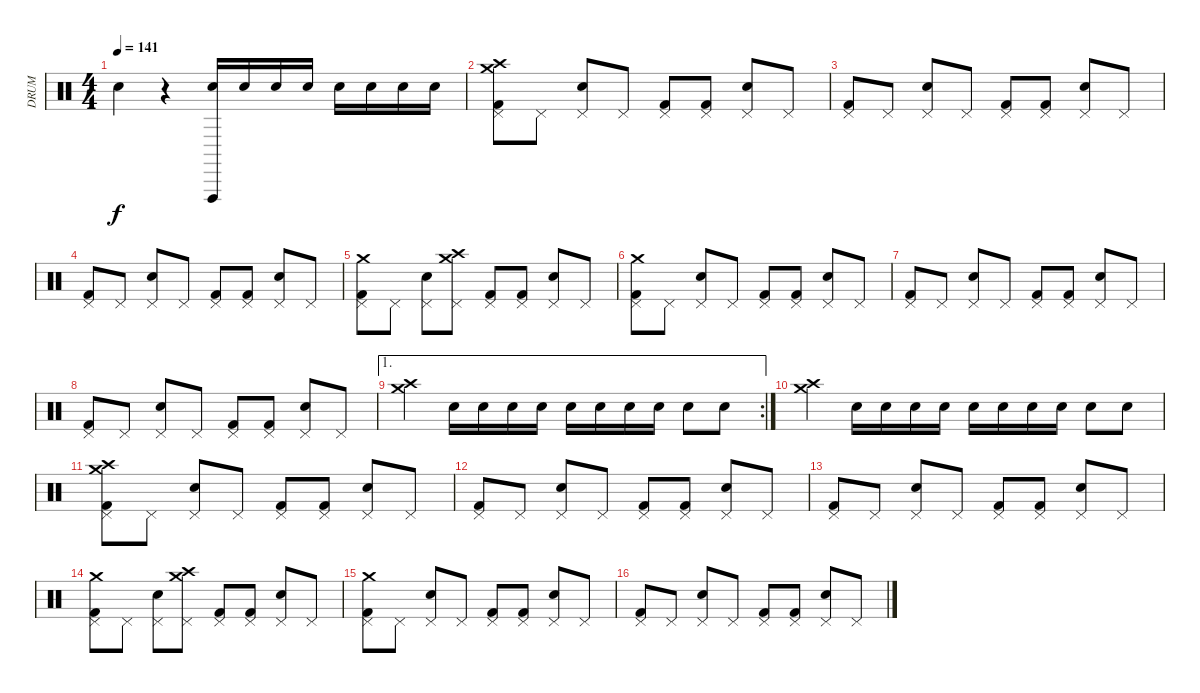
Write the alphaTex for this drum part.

\track ("DRUM" "DRUM") {instrument percussion}
\staff {score}
\articulation defaults
\ts (4 4)
\tempo 141
\clef neutral
\ks c "Snare (hit) 2".4{dy f}
r.4 ("Vibraslap (hit)" "Electric Snare (hit)").16 "Electric Snare (hit)".16 "Electric Snare (hit)".16 "Electric Snare (hit)".16 "Electric Snare (hit)".16 "Electric Snare (hit)".16 "Snare (hit) 2".16 "Electric Snare (hit)".16 |
("Crash high (hit)" "Crash medium (hit)" "Pedal Hi-Hat (hit)" "Kick (hit) 2").8 "Pedal Hi-Hat (hit)".8 ("Snare (hit) 2" "Pedal Hi-Hat (hit)").8 "Pedal Hi-Hat (hit)".8 ("Pedal Hi-Hat (hit)" "Kick (hit) 2").8 ("Pedal Hi-Hat (hit)" "Kick (hit) 2").8 ("Snare (hit) 2" "Pedal Hi-Hat (hit)").8 "Pedal Hi-Hat (hit)".8 |
("Pedal Hi-Hat (hit)" "Kick (hit) 2").8 "Pedal Hi-Hat (hit)".8 ("Snare (hit) 2" "Pedal Hi-Hat (hit)").8 "Pedal Hi-Hat (hit)".8 ("Pedal Hi-Hat (hit)" "Kick (hit) 2").8 ("Pedal Hi-Hat (hit)" "Kick (hit) 2").8 ("Snare (hit) 2" "Pedal Hi-Hat (hit)").8 "Pedal Hi-Hat (hit)".8 |
("Pedal Hi-Hat (hit)" "Kick (hit) 2").8 "Pedal Hi-Hat (hit)".8 ("Snare (hit) 2" "Pedal Hi-Hat (hit)").8 "Pedal Hi-Hat (hit)".8 ("Pedal Hi-Hat (hit)" "Kick (hit) 2").8 ("Pedal Hi-Hat (hit)" "Kick (hit) 2").8 ("Snare (hit) 2" "Pedal Hi-Hat (hit)").8 "Pedal Hi-Hat (hit)".8 |
("Crash medium (hit)" "Pedal Hi-Hat (hit)" "Kick (hit) 2").8 "Pedal Hi-Hat (hit)".8 ("Snare (hit) 2" "Pedal Hi-Hat (hit)").8 ("Crash medium (hit)" "Crash high (hit)" "Pedal Hi-Hat (hit)").8 ("Pedal Hi-Hat (hit)" "Kick (hit) 2").8 ("Pedal Hi-Hat (hit)" "Kick (hit) 2").8 ("Snare (hit) 2" "Pedal Hi-Hat (hit)").8 "Pedal Hi-Hat (hit)".8 |
("Crash medium (hit)" "Pedal Hi-Hat (hit)" "Kick (hit) 2").8 "Pedal Hi-Hat (hit)".8 ("Snare (hit) 2" "Pedal Hi-Hat (hit)").8 "Pedal Hi-Hat (hit)".8 ("Pedal Hi-Hat (hit)" "Kick (hit) 2").8 ("Pedal Hi-Hat (hit)" "Kick (hit) 2").8 ("Snare (hit) 2" "Pedal Hi-Hat (hit)").8 "Pedal Hi-Hat (hit)".8 |
("Pedal Hi-Hat (hit)" "Kick (hit) 2").8 "Pedal Hi-Hat (hit)".8 ("Snare (hit) 2" "Pedal Hi-Hat (hit)").8 "Pedal Hi-Hat (hit)".8 ("Pedal Hi-Hat (hit)" "Kick (hit) 2").8 ("Pedal Hi-Hat (hit)" "Kick (hit) 2").8 ("Snare (hit) 2" "Pedal Hi-Hat (hit)").8 "Pedal Hi-Hat (hit)".8 |
("Pedal Hi-Hat (hit)" "Kick (hit) 2").8 "Pedal Hi-Hat (hit)".8 ("Snare (hit) 2" "Pedal Hi-Hat (hit)").8 "Pedal Hi-Hat (hit)".8 ("Pedal Hi-Hat (hit)" "Kick (hit) 2").8 ("Pedal Hi-Hat (hit)" "Kick (hit) 2").8 ("Snare (hit) 2" "Pedal Hi-Hat (hit)").8 "Pedal Hi-Hat (hit)".8 |
\ae 1
\rc 2
("Crash high (hit)" "Crash medium (hit)").4 "Electric Snare (hit)".16 "Electric Snare (hit)".16 "Electric Snare (hit)".16 "Electric Snare (hit)".16 "Electric Snare (hit)".16 "Electric Snare (hit)".16 "Electric Snare (hit)".16 "Electric Snare (hit)".16 "Electric Snare (hit)".8 "Snare (hit) 2".8 |
("Crash high (hit)" "Crash medium (hit)").4 "Electric Snare (hit)".16 "Electric Snare (hit)".16 "Electric Snare (hit)".16 "Electric Snare (hit)".16 "Electric Snare (hit)".16 "Electric Snare (hit)".16 "Electric Snare (hit)".16 "Electric Snare (hit)".16 "Electric Snare (hit)".8 "Snare (hit) 2".8 |
("Crash high (hit)" "Crash medium (hit)" "Pedal Hi-Hat (hit)" "Kick (hit) 2").8 "Pedal Hi-Hat (hit)".8 ("Snare (hit) 2" "Pedal Hi-Hat (hit)").8 "Pedal Hi-Hat (hit)".8 ("Pedal Hi-Hat (hit)" "Kick (hit) 2").8 ("Pedal Hi-Hat (hit)" "Kick (hit) 2").8 ("Snare (hit) 2" "Pedal Hi-Hat (hit)").8 "Pedal Hi-Hat (hit)".8 |
("Pedal Hi-Hat (hit)" "Kick (hit) 2").8 "Pedal Hi-Hat (hit)".8 ("Snare (hit) 2" "Pedal Hi-Hat (hit)").8 "Pedal Hi-Hat (hit)".8 ("Pedal Hi-Hat (hit)" "Kick (hit) 2").8 ("Pedal Hi-Hat (hit)" "Kick (hit) 2").8 ("Snare (hit) 2" "Pedal Hi-Hat (hit)").8 "Pedal Hi-Hat (hit)".8 |
("Pedal Hi-Hat (hit)" "Kick (hit) 2").8 "Pedal Hi-Hat (hit)".8 ("Snare (hit) 2" "Pedal Hi-Hat (hit)").8 "Pedal Hi-Hat (hit)".8 ("Pedal Hi-Hat (hit)" "Kick (hit) 2").8 ("Pedal Hi-Hat (hit)" "Kick (hit) 2").8 ("Snare (hit) 2" "Pedal Hi-Hat (hit)").8 "Pedal Hi-Hat (hit)".8 |
("Crash medium (hit)" "Pedal Hi-Hat (hit)" "Kick (hit) 2").8 "Pedal Hi-Hat (hit)".8 ("Snare (hit) 2" "Pedal Hi-Hat (hit)").8 ("Crash medium (hit)" "Crash high (hit)" "Pedal Hi-Hat (hit)").8 ("Pedal Hi-Hat (hit)" "Kick (hit) 2").8 ("Pedal Hi-Hat (hit)" "Kick (hit) 2").8 ("Snare (hit) 2" "Pedal Hi-Hat (hit)").8 "Pedal Hi-Hat (hit)".8 |
("Crash medium (hit)" "Pedal Hi-Hat (hit)" "Kick (hit) 2").8 "Pedal Hi-Hat (hit)".8 ("Snare (hit) 2" "Pedal Hi-Hat (hit)").8 "Pedal Hi-Hat (hit)".8 ("Pedal Hi-Hat (hit)" "Kick (hit) 2").8 ("Pedal Hi-Hat (hit)" "Kick (hit) 2").8 ("Snare (hit) 2" "Pedal Hi-Hat (hit)").8 "Pedal Hi-Hat (hit)".8 |
("Pedal Hi-Hat (hit)" "Kick (hit) 2").8 "Pedal Hi-Hat (hit)".8 ("Snare (hit) 2" "Pedal Hi-Hat (hit)").8 "Pedal Hi-Hat (hit)".8 ("Pedal Hi-Hat (hit)" "Kick (hit) 2").8 ("Pedal Hi-Hat (hit)" "Kick (hit) 2").8 ("Snare (hit) 2" "Pedal Hi-Hat (hit)").8 "Pedal Hi-Hat (hit)".8
